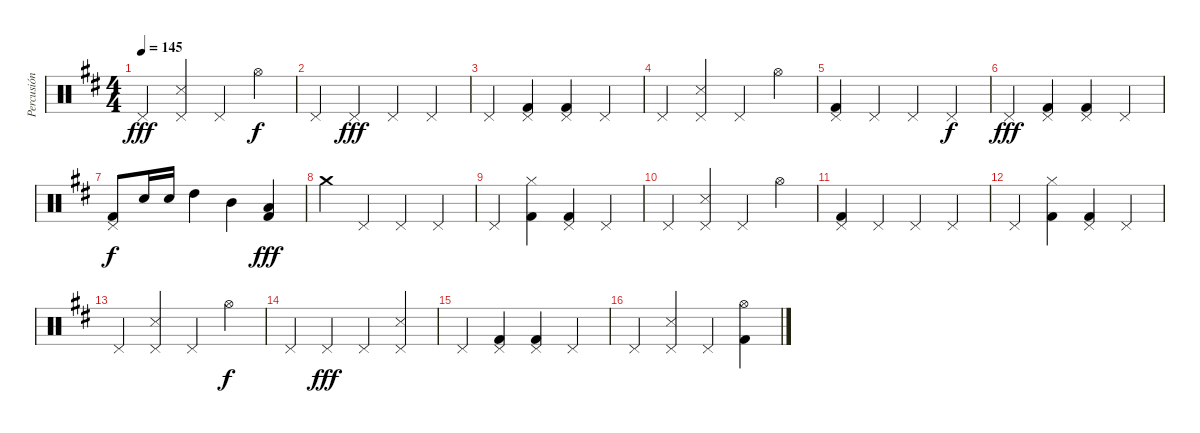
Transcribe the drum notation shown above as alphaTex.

\track ("Percusión" "Percusión") {instrument percussion}
\staff {score}
\articulation defaults
\ts (4 4)
\tempo 145
\clef neutral
\ks d "Pedal Hi-Hat (hit)".4{dy fff}
("Pedal Hi-Hat (hit)" "Snare (side stick) 3").4 "Pedal Hi-Hat (hit)".4 "Hi-Hat (open)".4{dy f} |
"Pedal Hi-Hat (hit)".4 "Pedal Hi-Hat (hit)".4{dy fff} "Pedal Hi-Hat (hit)".4 "Pedal Hi-Hat (hit)".4 |
"Pedal Hi-Hat (hit)".4 ("Pedal Hi-Hat (hit)" "Kick (hit) 2").4 ("Pedal Hi-Hat (hit)" "Kick (hit) 2").4 "Pedal Hi-Hat (hit)".4 |
"Pedal Hi-Hat (hit)".4 ("Pedal Hi-Hat (hit)" "Snare (side stick) 3").4 "Pedal Hi-Hat (hit)".4 "Hi-Hat (open)".4 |
("Pedal Hi-Hat (hit)" "Kick (hit) 2").4 "Pedal Hi-Hat (hit)".4 "Pedal Hi-Hat (hit)".4 "Pedal Hi-Hat (hit)".4{dy f} |
"Pedal Hi-Hat (hit)".4{dy fff} ("Pedal Hi-Hat (hit)" "Kick (hit) 2").4 ("Pedal Hi-Hat (hit)" "Kick (hit) 2").4 "Pedal Hi-Hat (hit)".4 |
("Pedal Hi-Hat (hit)" "Kick (hit) 2").8{dy f} "Electric Snare (hit)".16 "Electric Snare (hit)".16 "High Tom (hit)".4 "Mid Tom (hit)".4 ("Low Tom (hit)" "Kick (hit) 2").4{dy fff} |
"Crash medium (hit)".4 "Pedal Hi-Hat (hit)".4 "Pedal Hi-Hat (hit)".4 "Pedal Hi-Hat (hit)".4 |
"Pedal Hi-Hat (hit)".4 ("Hi-Hat (closed)" "Kick (hit) 2").4 ("Pedal Hi-Hat (hit)" "Kick (hit) 2").4 "Pedal Hi-Hat (hit)".4 |
"Pedal Hi-Hat (hit)".4 ("Pedal Hi-Hat (hit)" "Snare (side stick) 3").4 "Pedal Hi-Hat (hit)".4 "Hi-Hat (open)".4 |
("Pedal Hi-Hat (hit)" "Kick (hit) 2").4 "Pedal Hi-Hat (hit)".4 "Pedal Hi-Hat (hit)".4 "Pedal Hi-Hat (hit)".4 |
"Pedal Hi-Hat (hit)".4 ("Hi-Hat (closed)" "Kick (hit) 2").4 ("Pedal Hi-Hat (hit)" "Kick (hit) 2").4 "Pedal Hi-Hat (hit)".4 |
"Pedal Hi-Hat (hit)".4 ("Pedal Hi-Hat (hit)" "Snare (side stick) 3").4 "Pedal Hi-Hat (hit)".4 "Hi-Hat (open)".4{dy f} |
"Pedal Hi-Hat (hit)".4 "Pedal Hi-Hat (hit)".4{dy fff} "Pedal Hi-Hat (hit)".4 ("Pedal Hi-Hat (hit)" "Snare (side stick) 3").4 |
"Pedal Hi-Hat (hit)".4 ("Pedal Hi-Hat (hit)" "Kick (hit) 2").4 ("Pedal Hi-Hat (hit)" "Kick (hit) 2").4 "Pedal Hi-Hat (hit)".4 |
"Pedal Hi-Hat (hit)".4 ("Pedal Hi-Hat (hit)" "Snare (side stick) 3").4 "Pedal Hi-Hat (hit)".4 ("Hi-Hat (open)" "Kick (hit) 2").4
